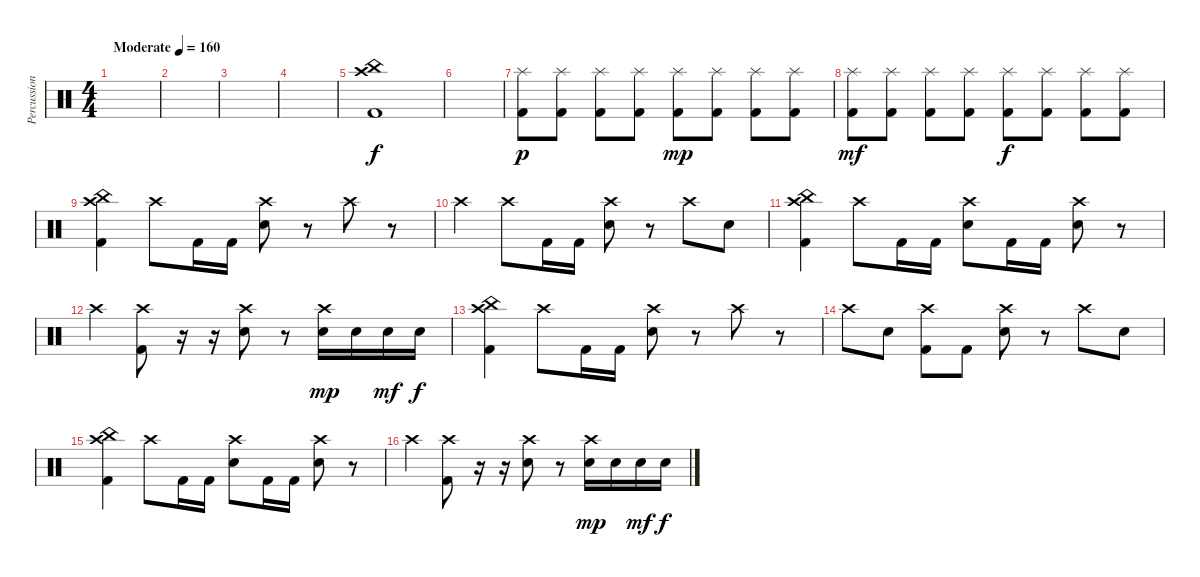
\track ("Percussion" "Percussion") {instrument percussion}
\staff {score}
\articulation defaults
\ts (4 4)
\tempo (160 "Moderate")
\clef neutral
\ks c
|
|
|
|
("Crash high (hit)" "China (hit)" "Kick (hit) 2").1 |
|
("Splash (hit)" "Kick (hit) 2").8{dy p} ("Splash (hit)" "Kick (hit) 2").8 ("Splash (hit)" "Kick (hit) 2").8 ("Splash (hit)" "Kick (hit) 2").8 ("Splash (hit)" "Kick (hit) 2").8{dy mp} ("Splash (hit)" "Kick (hit) 2").8 ("Splash (hit)" "Kick (hit) 2").8 ("Splash (hit)" "Kick (hit) 2").8 |
("Splash (hit)" "Kick (hit) 2").8{dy mf} ("Splash (hit)" "Kick (hit) 2").8 ("Splash (hit)" "Kick (hit) 2").8 ("Splash (hit)" "Kick (hit) 2").8 ("Splash (hit)" "Kick (hit) 2").8{dy f} ("Splash (hit)" "Kick (hit) 2").8 ("Splash (hit)" "Kick (hit) 2").8 ("Splash (hit)" "Kick (hit) 2").8 |
("Crash high (hit)" "China (hit)" "Kick (hit) 2").4 "Crash high (hit)".8 "Kick (hit) 2".16 "Kick (hit) 2".16 ("Crash high (hit)" "Snare (hit) 2").8 r.8 "Crash high (hit)".8 r.8 |
"Crash high (hit)".4 "Crash high (hit)".8 "Kick (hit) 2".16 "Kick (hit) 2".16 ("Crash high (hit)" "Snare (hit) 2").8 r.8 "Crash high (hit)".8 "Snare (hit) 2".8 |
("Crash high (hit)" "China (hit)" "Kick (hit) 2").4 "Crash high (hit)".8 "Kick (hit) 2".16 "Kick (hit) 2".16 ("Crash high (hit)" "Snare (hit) 2").8 "Kick (hit) 2".16 "Kick (hit) 2".16 ("Crash high (hit)" "Snare (hit) 2").8 r.8 |
"Crash high (hit)".4 ("Crash high (hit)" "Kick (hit) 2").8 r.16 r.16 ("Crash high (hit)" "Snare (hit) 2").8 r.8 ("Crash high (hit)" "Snare (hit) 2").16{dy mp} "Snare (hit) 2".16 "Snare (hit) 2".16{dy mf} "Snare (hit) 2".16{dy f} |
("Crash high (hit)" "China (hit)" "Kick (hit) 2").4 "Crash high (hit)".8 "Kick (hit) 2".16 "Kick (hit) 2".16 ("Crash high (hit)" "Snare (hit) 2").8 r.8 "Crash high (hit)".8 r.8 |
"Crash high (hit)".8 "Snare (hit) 2".8 ("Crash high (hit)" "Kick (hit) 2").8 "Kick (hit) 2".8 ("Crash high (hit)" "Snare (hit) 2").8 r.8 "Crash high (hit)".8 "Snare (hit) 2".8 |
("Crash high (hit)" "China (hit)" "Kick (hit) 2").4 "Crash high (hit)".8 "Kick (hit) 2".16 "Kick (hit) 2".16 ("Crash high (hit)" "Snare (hit) 2").8 "Kick (hit) 2".16 "Kick (hit) 2".16 ("Crash high (hit)" "Snare (hit) 2").8 r.8 |
"Crash high (hit)".4 ("Crash high (hit)" "Kick (hit) 2").8 r.16 r.16 ("Crash high (hit)" "Snare (hit) 2").8 r.8 ("Crash high (hit)" "Snare (hit) 2").16{dy mp} "Snare (hit) 2".16 "Snare (hit) 2".16{dy mf} "Snare (hit) 2".16{dy f}
